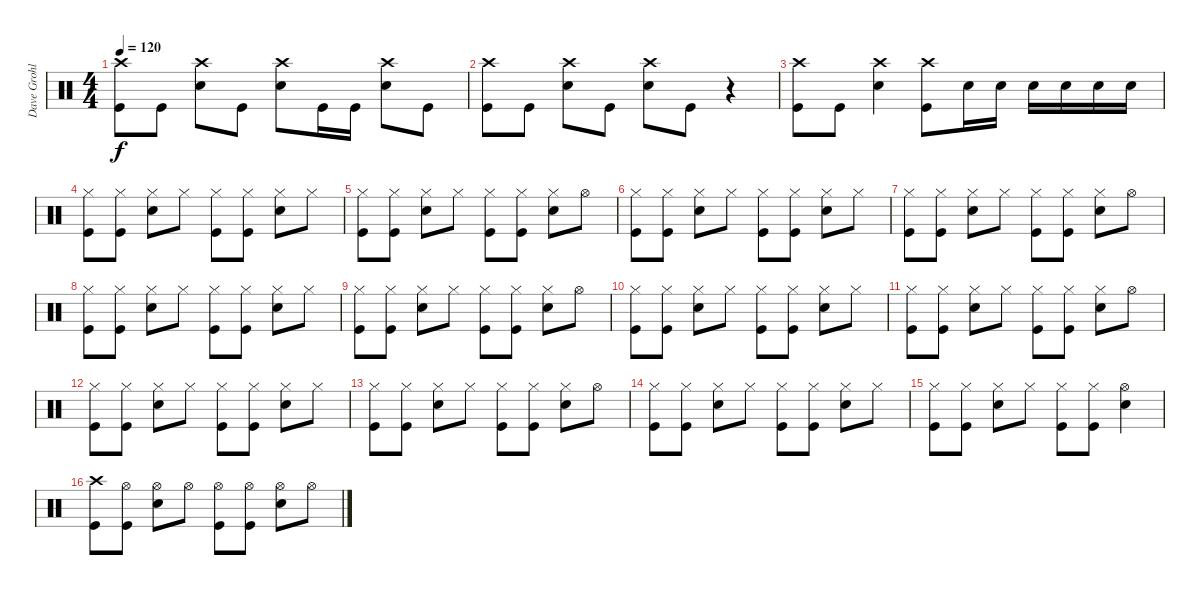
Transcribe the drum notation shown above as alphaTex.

\track ("Dave Grohl - Drums" "Dave Grohl") {instrument percussion}
\staff {score}
\articulation defaults
\ts (4 4)
\tempo 120
\clef neutral
\ks c
("Crash high (hit)" "Kick (hit)").8{dy f} "Kick (hit)".8 ("Crash high (hit)" "Snare (hit) 2").8 "Kick (hit)".8 ("Crash high (hit)" "Snare (hit) 2").8 "Kick (hit)".16 "Kick (hit)".16 ("Crash high (hit)" "Snare (hit) 2").8 "Kick (hit)".8 |
("Crash high (hit)" "Kick (hit)").8 "Kick (hit)".8 ("Crash high (hit)" "Snare (hit) 2").8 "Kick (hit)".8 ("Crash high (hit)" "Snare (hit) 2").8 "Kick (hit)".8 r.4 |
("Crash high (hit)" "Kick (hit)").8 "Kick (hit)".8 ("Crash high (hit)" "Snare (hit) 2").4 ("Crash high (hit)" "Kick (hit)").8 "Snare (hit) 2".16 "Snare (hit) 2".16 "Snare (hit) 2".16 "Snare (hit) 2".16 "Snare (hit) 2".16 "Snare (hit) 2".16 |
("Hi-Hat (closed)" "Kick (hit)").8 ("Hi-Hat (closed)" "Kick (hit)").8 ("Hi-Hat (closed)" "Snare (hit) 2").8 "Hi-Hat (closed)".8 ("Hi-Hat (closed)" "Kick (hit)").8 ("Hi-Hat (closed)" "Kick (hit)").8 ("Hi-Hat (closed)" "Snare (hit) 2").8 "Hi-Hat (closed)".8 |
("Hi-Hat (closed)" "Kick (hit)").8 ("Hi-Hat (closed)" "Kick (hit)").8 ("Hi-Hat (closed)" "Snare (hit) 2").8 "Hi-Hat (closed)".8 ("Hi-Hat (closed)" "Kick (hit)").8 ("Hi-Hat (closed)" "Kick (hit)").8 ("Hi-Hat (closed)" "Snare (hit) 2").8 "Hi-Hat (open)".8 |
("Hi-Hat (closed)" "Kick (hit)").8 ("Hi-Hat (closed)" "Kick (hit)").8 ("Hi-Hat (closed)" "Snare (hit) 2").8 "Hi-Hat (closed)".8 ("Hi-Hat (closed)" "Kick (hit)").8 ("Hi-Hat (closed)" "Kick (hit)").8 ("Hi-Hat (closed)" "Snare (hit) 2").8 "Hi-Hat (closed)".8 |
("Hi-Hat (closed)" "Kick (hit)").8 ("Hi-Hat (closed)" "Kick (hit)").8 ("Hi-Hat (closed)" "Snare (hit) 2").8 "Hi-Hat (closed)".8 ("Hi-Hat (closed)" "Kick (hit)").8 ("Hi-Hat (closed)" "Kick (hit)").8 ("Hi-Hat (closed)" "Snare (hit) 2").8 "Hi-Hat (open)".8 |
("Hi-Hat (closed)" "Kick (hit)").8 ("Hi-Hat (closed)" "Kick (hit)").8 ("Hi-Hat (closed)" "Snare (hit) 2").8 "Hi-Hat (closed)".8 ("Hi-Hat (closed)" "Kick (hit)").8 ("Hi-Hat (closed)" "Kick (hit)").8 ("Hi-Hat (closed)" "Snare (hit) 2").8 "Hi-Hat (closed)".8 |
("Hi-Hat (closed)" "Kick (hit)").8 ("Hi-Hat (closed)" "Kick (hit)").8 ("Hi-Hat (closed)" "Snare (hit) 2").8 "Hi-Hat (closed)".8 ("Hi-Hat (closed)" "Kick (hit)").8 ("Hi-Hat (closed)" "Kick (hit)").8 ("Hi-Hat (closed)" "Snare (hit) 2").8 "Hi-Hat (open)".8 |
("Hi-Hat (closed)" "Kick (hit)").8 ("Hi-Hat (closed)" "Kick (hit)").8 ("Hi-Hat (closed)" "Snare (hit) 2").8 "Hi-Hat (closed)".8 ("Hi-Hat (closed)" "Kick (hit)").8 ("Hi-Hat (closed)" "Kick (hit)").8 ("Hi-Hat (closed)" "Snare (hit) 2").8 "Hi-Hat (closed)".8 |
("Hi-Hat (closed)" "Kick (hit)").8 ("Hi-Hat (closed)" "Kick (hit)").8 ("Hi-Hat (closed)" "Snare (hit) 2").8 "Hi-Hat (closed)".8 ("Hi-Hat (closed)" "Kick (hit)").8 ("Hi-Hat (closed)" "Kick (hit)").8 ("Hi-Hat (closed)" "Snare (hit) 2").8 "Hi-Hat (open)".8 |
("Hi-Hat (closed)" "Kick (hit)").8 ("Hi-Hat (closed)" "Kick (hit)").8 ("Hi-Hat (closed)" "Snare (hit) 2").8 "Hi-Hat (closed)".8 ("Hi-Hat (closed)" "Kick (hit)").8 ("Hi-Hat (closed)" "Kick (hit)").8 ("Hi-Hat (closed)" "Snare (hit) 2").8 "Hi-Hat (closed)".8 |
("Hi-Hat (closed)" "Kick (hit)").8 ("Hi-Hat (closed)" "Kick (hit)").8 ("Hi-Hat (closed)" "Snare (hit) 2").8 "Hi-Hat (closed)".8 ("Hi-Hat (closed)" "Kick (hit)").8 ("Hi-Hat (closed)" "Kick (hit)").8 ("Hi-Hat (closed)" "Snare (hit) 2").8 "Hi-Hat (open)".8 |
("Hi-Hat (closed)" "Kick (hit)").8 ("Hi-Hat (closed)" "Kick (hit)").8 ("Hi-Hat (closed)" "Snare (hit) 2").8 "Hi-Hat (closed)".8 ("Hi-Hat (closed)" "Kick (hit)").8 ("Hi-Hat (closed)" "Kick (hit)").8 ("Hi-Hat (closed)" "Snare (hit) 2").8 "Hi-Hat (closed)".8 |
("Hi-Hat (closed)" "Kick (hit)").8 ("Hi-Hat (closed)" "Kick (hit)").8 ("Hi-Hat (closed)" "Snare (hit) 2").8 "Hi-Hat (closed)".8 ("Hi-Hat (closed)" "Kick (hit)").8 ("Hi-Hat (closed)" "Kick (hit)").8 ("Hi-Hat (open)" "Snare (hit) 2").4 |
("Crash high (hit)" "Kick (hit)").8 ("Hi-Hat (open)" "Kick (hit)").8 ("Hi-Hat (open)" "Snare (hit) 2").8 "Hi-Hat (open)".8 ("Hi-Hat (open)" "Kick (hit)").8 ("Hi-Hat (open)" "Kick (hit)").8 ("Hi-Hat (open)" "Snare (hit) 2").8 "Hi-Hat (open)".8
